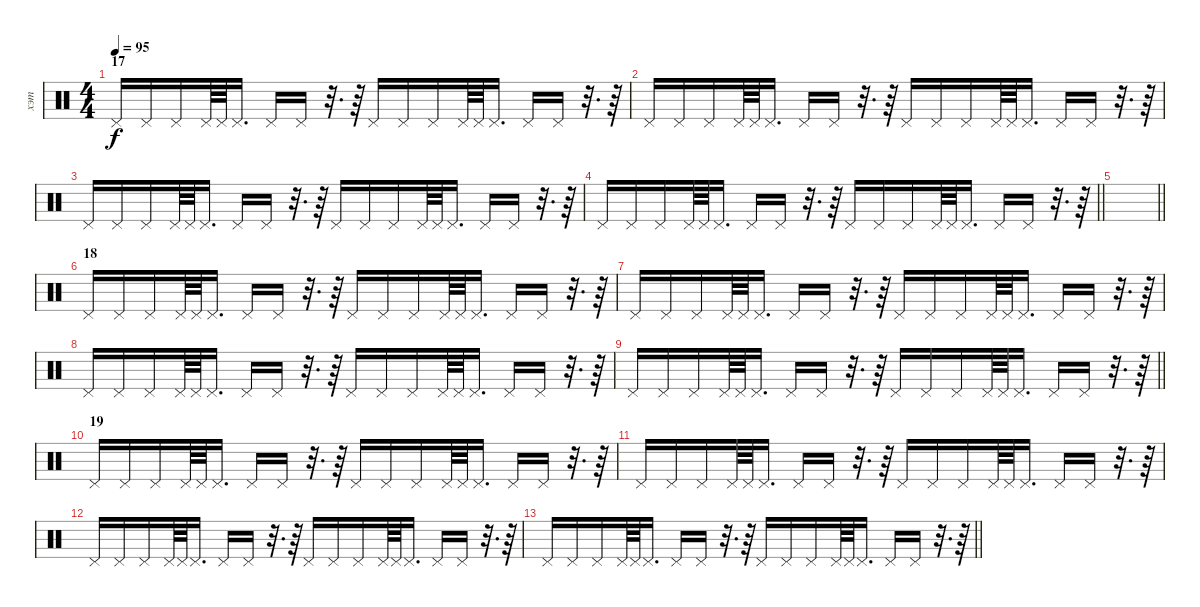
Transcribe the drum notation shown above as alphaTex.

\track ("хэт" "хэт") {instrument percussion}
\staff {score}
\articulation defaults
\ts (4 4)
\section ("" "17")
\tempo 95
\clef neutral
\ks c "Pedal Hi-Hat (hit)".16{dy f} "Pedal Hi-Hat (hit)".16 "Pedal Hi-Hat (hit)".16 "Pedal Hi-Hat (hit)".64 "Pedal Hi-Hat (hit)".64 "Pedal Hi-Hat (hit)".16{d} "Pedal Hi-Hat (hit)".16 "Pedal Hi-Hat (hit)".16
r.32{d} r.64 "Pedal Hi-Hat (hit)".16 "Pedal Hi-Hat (hit)".16 "Pedal Hi-Hat (hit)".16 "Pedal Hi-Hat (hit)".64 "Pedal Hi-Hat (hit)".64 "Pedal Hi-Hat (hit)".16{d} "Pedal Hi-Hat (hit)".16 "Pedal Hi-Hat (hit)".16 r.32{d} r.64 |
"Pedal Hi-Hat (hit)".16 "Pedal Hi-Hat (hit)".16 "Pedal Hi-Hat (hit)".16 "Pedal Hi-Hat (hit)".64 "Pedal Hi-Hat (hit)".64 "Pedal Hi-Hat (hit)".16{d} "Pedal Hi-Hat (hit)".16 "Pedal Hi-Hat (hit)".16 r.32{d} r.64 "Pedal Hi-Hat (hit)".16 "Pedal Hi-Hat (hit)".16 "Pedal Hi-Hat (hit)".16 "Pedal Hi-Hat (hit)".64 "Pedal Hi-Hat (hit)".64 "Pedal Hi-Hat (hit)".16{d} "Pedal Hi-Hat (hit)".16 "Pedal Hi-Hat (hit)".16 r.32{d} r.64 |
"Pedal Hi-Hat (hit)".16 "Pedal Hi-Hat (hit)".16 "Pedal Hi-Hat (hit)".16 "Pedal Hi-Hat (hit)".64 "Pedal Hi-Hat (hit)".64 "Pedal Hi-Hat (hit)".16{d} "Pedal Hi-Hat (hit)".16 "Pedal Hi-Hat (hit)".16 r.32{d} r.64 "Pedal Hi-Hat (hit)".16 "Pedal Hi-Hat (hit)".16 "Pedal Hi-Hat (hit)".16 "Pedal Hi-Hat (hit)".64 "Pedal Hi-Hat (hit)".64 "Pedal Hi-Hat (hit)".16{d} "Pedal Hi-Hat (hit)".16 "Pedal Hi-Hat (hit)".16 r.32{d} r.64 |
\barLineRight lightlight "Pedal Hi-Hat (hit)".16 "Pedal Hi-Hat (hit)".16 "Pedal Hi-Hat (hit)".16 "Pedal Hi-Hat (hit)".64 "Pedal Hi-Hat (hit)".64 "Pedal Hi-Hat (hit)".16{d} "Pedal Hi-Hat (hit)".16 "Pedal Hi-Hat (hit)".16
r.32{d} r.64 "Pedal Hi-Hat (hit)".16 "Pedal Hi-Hat (hit)".16 "Pedal Hi-Hat (hit)".16 "Pedal Hi-Hat (hit)".64 "Pedal Hi-Hat (hit)".64 "Pedal Hi-Hat (hit)".16{d} "Pedal Hi-Hat (hit)".16 "Pedal Hi-Hat (hit)".16 r.32{d} r.64 |
\barLineRight lightlight
|
\section ("" "18")
"Pedal Hi-Hat (hit)".16 "Pedal Hi-Hat (hit)".16 "Pedal Hi-Hat (hit)".16 "Pedal Hi-Hat (hit)".64 "Pedal Hi-Hat (hit)".64 "Pedal Hi-Hat (hit)".16{d} "Pedal Hi-Hat (hit)".16 "Pedal Hi-Hat (hit)".16 r.32{d} r.64 "Pedal Hi-Hat (hit)".16 "Pedal Hi-Hat (hit)".16 "Pedal Hi-Hat (hit)".16 "Pedal Hi-Hat (hit)".64 "Pedal Hi-Hat (hit)".64 "Pedal Hi-Hat (hit)".16{d} "Pedal Hi-Hat (hit)".16 "Pedal Hi-Hat (hit)".16 r.32{d} r.64 |
"Pedal Hi-Hat (hit)".16 "Pedal Hi-Hat (hit)".16 "Pedal Hi-Hat (hit)".16 "Pedal Hi-Hat (hit)".64 "Pedal Hi-Hat (hit)".64 "Pedal Hi-Hat (hit)".16{d} "Pedal Hi-Hat (hit)".16 "Pedal Hi-Hat (hit)".16 r.32{d} r.64 "Pedal Hi-Hat (hit)".16 "Pedal Hi-Hat (hit)".16 "Pedal Hi-Hat (hit)".16 "Pedal Hi-Hat (hit)".64 "Pedal Hi-Hat (hit)".64 "Pedal Hi-Hat (hit)".16{d} "Pedal Hi-Hat (hit)".16 "Pedal Hi-Hat (hit)".16 r.32{d} r.64 |
"Pedal Hi-Hat (hit)".16 "Pedal Hi-Hat (hit)".16 "Pedal Hi-Hat (hit)".16 "Pedal Hi-Hat (hit)".64 "Pedal Hi-Hat (hit)".64 "Pedal Hi-Hat (hit)".16{d} "Pedal Hi-Hat (hit)".16 "Pedal Hi-Hat (hit)".16 r.32{d} r.64 "Pedal Hi-Hat (hit)".16 "Pedal Hi-Hat (hit)".16 "Pedal Hi-Hat (hit)".16 "Pedal Hi-Hat (hit)".64 "Pedal Hi-Hat (hit)".64 "Pedal Hi-Hat (hit)".16{d} "Pedal Hi-Hat (hit)".16 "Pedal Hi-Hat (hit)".16 r.32{d} r.64 |
\barLineRight lightlight "Pedal Hi-Hat (hit)".16 "Pedal Hi-Hat (hit)".16 "Pedal Hi-Hat (hit)".16 "Pedal Hi-Hat (hit)".64 "Pedal Hi-Hat (hit)".64 "Pedal Hi-Hat (hit)".16{d} "Pedal Hi-Hat (hit)".16 "Pedal Hi-Hat (hit)".16
r.32{d} r.64 "Pedal Hi-Hat (hit)".16 "Pedal Hi-Hat (hit)".16 "Pedal Hi-Hat (hit)".16 "Pedal Hi-Hat (hit)".64 "Pedal Hi-Hat (hit)".64 "Pedal Hi-Hat (hit)".16{d} "Pedal Hi-Hat (hit)".16 "Pedal Hi-Hat (hit)".16 r.32{d} r.64 |
\section ("" "19")
"Pedal Hi-Hat (hit)".16 "Pedal Hi-Hat (hit)".16 "Pedal Hi-Hat (hit)".16 "Pedal Hi-Hat (hit)".64 "Pedal Hi-Hat (hit)".64 "Pedal Hi-Hat (hit)".16{d} "Pedal Hi-Hat (hit)".16 "Pedal Hi-Hat (hit)".16 r.32{d} r.64 "Pedal Hi-Hat (hit)".16 "Pedal Hi-Hat (hit)".16 "Pedal Hi-Hat (hit)".16 "Pedal Hi-Hat (hit)".64 "Pedal Hi-Hat (hit)".64 "Pedal Hi-Hat (hit)".16{d} "Pedal Hi-Hat (hit)".16 "Pedal Hi-Hat (hit)".16 r.32{d} r.64 |
"Pedal Hi-Hat (hit)".16 "Pedal Hi-Hat (hit)".16 "Pedal Hi-Hat (hit)".16 "Pedal Hi-Hat (hit)".64 "Pedal Hi-Hat (hit)".64 "Pedal Hi-Hat (hit)".16{d} "Pedal Hi-Hat (hit)".16 "Pedal Hi-Hat (hit)".16 r.32{d} r.64 "Pedal Hi-Hat (hit)".16 "Pedal Hi-Hat (hit)".16 "Pedal Hi-Hat (hit)".16 "Pedal Hi-Hat (hit)".64 "Pedal Hi-Hat (hit)".64 "Pedal Hi-Hat (hit)".16{d} "Pedal Hi-Hat (hit)".16 "Pedal Hi-Hat (hit)".16 r.32{d} r.64 |
"Pedal Hi-Hat (hit)".16 "Pedal Hi-Hat (hit)".16 "Pedal Hi-Hat (hit)".16 "Pedal Hi-Hat (hit)".64 "Pedal Hi-Hat (hit)".64 "Pedal Hi-Hat (hit)".16{d} "Pedal Hi-Hat (hit)".16 "Pedal Hi-Hat (hit)".16 r.32{d} r.64 "Pedal Hi-Hat (hit)".16 "Pedal Hi-Hat (hit)".16 "Pedal Hi-Hat (hit)".16 "Pedal Hi-Hat (hit)".64 "Pedal Hi-Hat (hit)".64 "Pedal Hi-Hat (hit)".16{d} "Pedal Hi-Hat (hit)".16 "Pedal Hi-Hat (hit)".16 r.32{d} r.64 |
\barLineRight lightlight "Pedal Hi-Hat (hit)".16 "Pedal Hi-Hat (hit)".16 "Pedal Hi-Hat (hit)".16 "Pedal Hi-Hat (hit)".64 "Pedal Hi-Hat (hit)".64 "Pedal Hi-Hat (hit)".16{d} "Pedal Hi-Hat (hit)".16 "Pedal Hi-Hat (hit)".16
r.32{d} r.64 "Pedal Hi-Hat (hit)".16 "Pedal Hi-Hat (hit)".16 "Pedal Hi-Hat (hit)".16 "Pedal Hi-Hat (hit)".64 "Pedal Hi-Hat (hit)".64 "Pedal Hi-Hat (hit)".16{d} "Pedal Hi-Hat (hit)".16 "Pedal Hi-Hat (hit)".16 r.32{d} r.64
